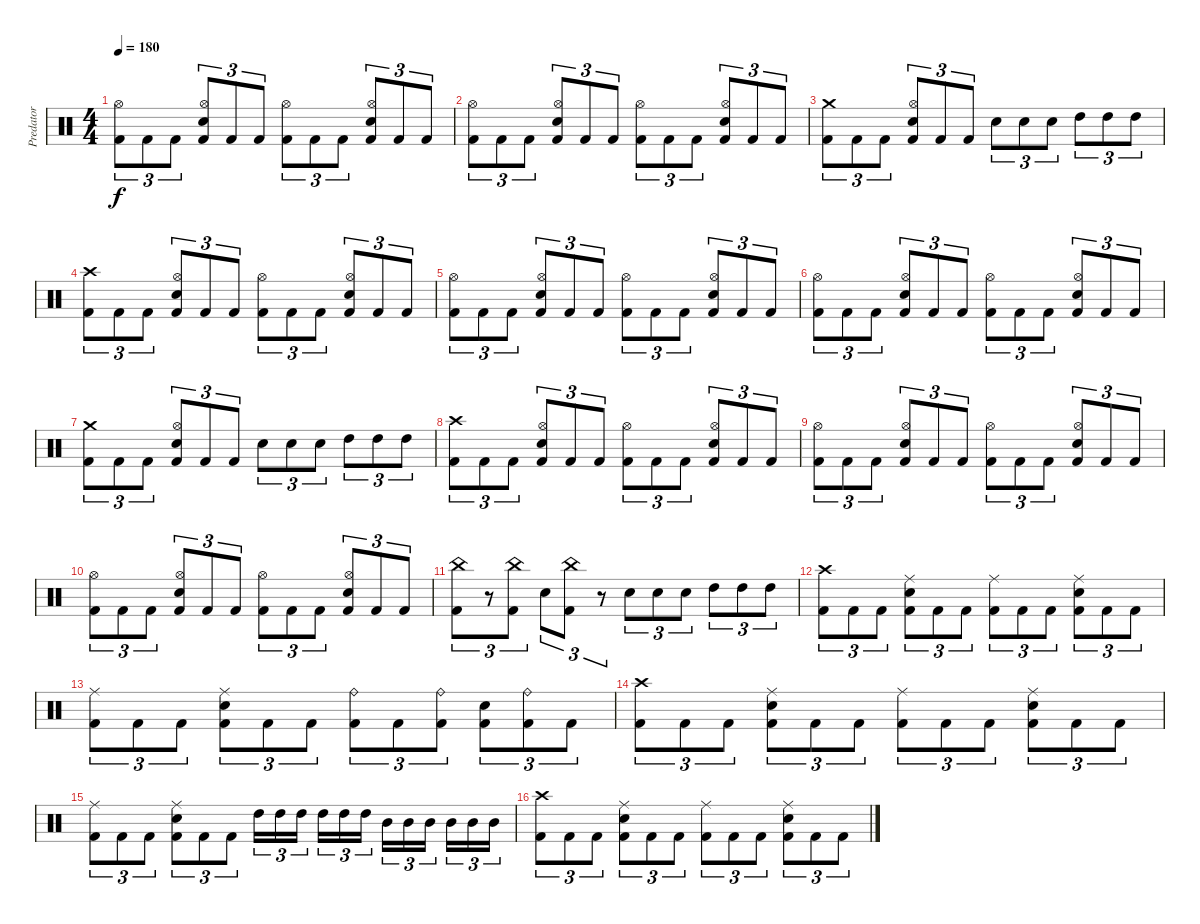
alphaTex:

\track ("Predator" "Predator") {instrument percussion}
\staff {score}
\articulation defaults
\ts (4 4)
\tempo 180
\clef neutral
\ks c
("Kick (hit) 2" "Hi-Hat (open)").8{tu (3 2) dy f} "Kick (hit) 2".8{tu (3 2)} "Kick (hit) 2".8{tu (3 2)} ("Kick (hit) 2" "Electric Snare (hit)" "Hi-Hat (open)").8{tu (3 2)} "Kick (hit) 2".8{tu (3 2)} "Kick (hit) 2".8{tu (3 2)} ("Kick (hit) 2" "Hi-Hat (open)").8{tu (3 2)} "Kick (hit) 2".8{tu (3 2)} "Kick (hit) 2".8{tu (3 2)} ("Kick (hit) 2" "Electric Snare (hit)" "Hi-Hat (open)").8{tu (3 2)} "Kick (hit) 2".8{tu (3 2)} "Kick (hit) 2".8{tu (3 2)} |
("Kick (hit) 2" "Hi-Hat (open)").8{tu (3 2)} "Kick (hit) 2".8{tu (3 2)} "Kick (hit) 2".8{tu (3 2)} ("Kick (hit) 2" "Electric Snare (hit)" "Hi-Hat (open)").8{tu (3 2)} "Kick (hit) 2".8{tu (3 2)} "Kick (hit) 2".8{tu (3 2)} ("Kick (hit) 2" "Hi-Hat (open)").8{tu (3 2)} "Kick (hit) 2".8{tu (3 2)} "Kick (hit) 2".8{tu (3 2)} ("Kick (hit) 2" "Electric Snare (hit)" "Hi-Hat (open)").8{tu (3 2)} "Kick (hit) 2".8{tu (3 2)} "Kick (hit) 2".8{tu (3 2)} |
("Kick (hit) 2" "Crash medium (hit)").8{tu (3 2)} "Kick (hit) 2".8{tu (3 2)} "Kick (hit) 2".8{tu (3 2)} ("Kick (hit) 2" "Electric Snare (hit)" "Hi-Hat (open)").8{tu (3 2)} "Kick (hit) 2".8{tu (3 2)} "Kick (hit) 2".8{tu (3 2)} "Electric Snare (hit)".8{tu (3 2)} "Electric Snare (hit)".8{tu (3 2)} "Electric Snare (hit)".8{tu (3 2)} "High Tom (hit)".8{tu (3 2)} "High Tom (hit)".8{tu (3 2)} "High Tom (hit)".8{tu (3 2)} |
("Kick (hit) 2" "Crash high (hit)").8{tu (3 2)} "Kick (hit) 2".8{tu (3 2)} "Kick (hit) 2".8{tu (3 2)} ("Kick (hit) 2" "Electric Snare (hit)" "Hi-Hat (open)").8{tu (3 2)} "Kick (hit) 2".8{tu (3 2)} "Kick (hit) 2".8{tu (3 2)} ("Kick (hit) 2" "Hi-Hat (open)").8{tu (3 2)} "Kick (hit) 2".8{tu (3 2)} "Kick (hit) 2".8{tu (3 2)} ("Kick (hit) 2" "Electric Snare (hit)" "Hi-Hat (open)").8{tu (3 2)} "Kick (hit) 2".8{tu (3 2)} "Kick (hit) 2".8{tu (3 2)} |
("Kick (hit) 2" "Hi-Hat (open)").8{tu (3 2)} "Kick (hit) 2".8{tu (3 2)} "Kick (hit) 2".8{tu (3 2)} ("Kick (hit) 2" "Electric Snare (hit)" "Hi-Hat (open)").8{tu (3 2)} "Kick (hit) 2".8{tu (3 2)} "Kick (hit) 2".8{tu (3 2)} ("Kick (hit) 2" "Hi-Hat (open)").8{tu (3 2)} "Kick (hit) 2".8{tu (3 2)} "Kick (hit) 2".8{tu (3 2)} ("Kick (hit) 2" "Electric Snare (hit)" "Hi-Hat (open)").8{tu (3 2)} "Kick (hit) 2".8{tu (3 2)} "Kick (hit) 2".8{tu (3 2)} |
("Kick (hit) 2" "Hi-Hat (open)").8{tu (3 2)} "Kick (hit) 2".8{tu (3 2)} "Kick (hit) 2".8{tu (3 2)} ("Kick (hit) 2" "Electric Snare (hit)" "Hi-Hat (open)").8{tu (3 2)} "Kick (hit) 2".8{tu (3 2)} "Kick (hit) 2".8{tu (3 2)} ("Kick (hit) 2" "Hi-Hat (open)").8{tu (3 2)} "Kick (hit) 2".8{tu (3 2)} "Kick (hit) 2".8{tu (3 2)} ("Kick (hit) 2" "Electric Snare (hit)" "Hi-Hat (open)").8{tu (3 2)} "Kick (hit) 2".8{tu (3 2)} "Kick (hit) 2".8{tu (3 2)} |
("Kick (hit) 2" "Crash medium (hit)").8{tu (3 2)} "Kick (hit) 2".8{tu (3 2)} "Kick (hit) 2".8{tu (3 2)} ("Kick (hit) 2" "Electric Snare (hit)" "Hi-Hat (open)").8{tu (3 2)} "Kick (hit) 2".8{tu (3 2)} "Kick (hit) 2".8{tu (3 2)} "Electric Snare (hit)".8{tu (3 2)} "Electric Snare (hit)".8{tu (3 2)} "Electric Snare (hit)".8{tu (3 2)} "High Tom (hit)".8{tu (3 2)} "High Tom (hit)".8{tu (3 2)} "High Tom (hit)".8{tu (3 2)} |
("Kick (hit) 2" "Crash high (hit)").8{tu (3 2)} "Kick (hit) 2".8{tu (3 2)} "Kick (hit) 2".8{tu (3 2)} ("Kick (hit) 2" "Electric Snare (hit)" "Hi-Hat (open)").8{tu (3 2)} "Kick (hit) 2".8{tu (3 2)} "Kick (hit) 2".8{tu (3 2)} ("Kick (hit) 2" "Hi-Hat (open)").8{tu (3 2)} "Kick (hit) 2".8{tu (3 2)} "Kick (hit) 2".8{tu (3 2)} ("Kick (hit) 2" "Electric Snare (hit)" "Hi-Hat (open)").8{tu (3 2)} "Kick (hit) 2".8{tu (3 2)} "Kick (hit) 2".8{tu (3 2)} |
("Kick (hit) 2" "Hi-Hat (open)").8{tu (3 2)} "Kick (hit) 2".8{tu (3 2)} "Kick (hit) 2".8{tu (3 2)} ("Kick (hit) 2" "Electric Snare (hit)" "Hi-Hat (open)").8{tu (3 2)} "Kick (hit) 2".8{tu (3 2)} "Kick (hit) 2".8{tu (3 2)} ("Kick (hit) 2" "Hi-Hat (open)").8{tu (3 2)} "Kick (hit) 2".8{tu (3 2)} "Kick (hit) 2".8{tu (3 2)} ("Kick (hit) 2" "Electric Snare (hit)" "Hi-Hat (open)").8{tu (3 2)} "Kick (hit) 2".8{tu (3 2)} "Kick (hit) 2".8{tu (3 2)} |
("Kick (hit) 2" "Hi-Hat (open)").8{tu (3 2)} "Kick (hit) 2".8{tu (3 2)} "Kick (hit) 2".8{tu (3 2)} ("Kick (hit) 2" "Electric Snare (hit)" "Hi-Hat (open)").8{tu (3 2)} "Kick (hit) 2".8{tu (3 2)} "Kick (hit) 2".8{tu (3 2)} ("Kick (hit) 2" "Hi-Hat (open)").8{tu (3 2)} "Kick (hit) 2".8{tu (3 2)} "Kick (hit) 2".8{tu (3 2)} ("Kick (hit) 2" "Electric Snare (hit)" "Hi-Hat (open)").8{tu (3 2)} "Kick (hit) 2".8{tu (3 2)} "Kick (hit) 2".8{tu (3 2)} |
("Kick (hit) 2" "China (hit)").8{tu (3 2)} r.8{tu (3 2)} ("Kick (hit) 2" "China (hit)").8{tu (3 2)} "Electric Snare (hit)".8{tu (3 2)} ("Kick (hit) 2" "China (hit)").8{tu (3 2)} r.8{tu (3 2)} "Electric Snare (hit)".8{tu (3 2)} "Electric Snare (hit)".8{tu (3 2)} "Electric Snare (hit)".8{tu (3 2)} "High Tom (hit)".8{tu (3 2)} "High Tom (hit)".8{tu (3 2)} "High Tom (hit)".8{tu (3 2)} |
("Kick (hit) 2" "Crash high (hit)").8{tu (3 2)} "Kick (hit) 2".8{tu (3 2)} "Kick (hit) 2".8{tu (3 2)} ("Kick (hit) 2" "Electric Snare (hit)" "Ride (middle)").8{tu (3 2)} "Kick (hit) 2".8{tu (3 2)} "Kick (hit) 2".8{tu (3 2)} ("Kick (hit) 2" "Ride (middle)").8{tu (3 2)} "Kick (hit) 2".8{tu (3 2)} "Kick (hit) 2".8{tu (3 2)} ("Kick (hit) 2" "Electric Snare (hit)" "Ride (middle)").8{tu (3 2)} "Kick (hit) 2".8{tu (3 2)} "Kick (hit) 2".8{tu (3 2)} |
("Kick (hit) 2" "Ride (middle)").8{tu (3 2)} "Kick (hit) 2".8{tu (3 2)} "Kick (hit) 2".8{tu (3 2)} ("Kick (hit) 2" "Electric Snare (hit)" "Ride (middle)").8{tu (3 2)} "Kick (hit) 2".8{tu (3 2)} "Kick (hit) 2".8{tu (3 2)} ("Kick (hit) 2" "Ride (bell)").8{tu (3 2)} "Kick (hit) 2".8{tu (3 2)} ("Kick (hit) 2" "Ride (bell)").8{tu (3 2)} ("Kick (hit) 2" "Electric Snare (hit)").8{tu (3 2)} ("Kick (hit) 2" "Ride (bell)").8{tu (3 2)} "Kick (hit) 2".8{tu (3 2)} |
("Kick (hit) 2" "Crash high (hit)").8{tu (3 2)} "Kick (hit) 2".8{tu (3 2)} "Kick (hit) 2".8{tu (3 2)} ("Kick (hit) 2" "Electric Snare (hit)" "Ride (middle)").8{tu (3 2)} "Kick (hit) 2".8{tu (3 2)} "Kick (hit) 2".8{tu (3 2)} ("Kick (hit) 2" "Ride (middle)").8{tu (3 2)} "Kick (hit) 2".8{tu (3 2)} "Kick (hit) 2".8{tu (3 2)} ("Kick (hit) 2" "Electric Snare (hit)" "Ride (middle)").8{tu (3 2)} "Kick (hit) 2".8{tu (3 2)} "Kick (hit) 2".8{tu (3 2)} |
("Kick (hit) 2" "Ride (middle)").8{tu (3 2)} "Kick (hit) 2".8{tu (3 2)} "Kick (hit) 2".8{tu (3 2)} ("Kick (hit) 2" "Electric Snare (hit)" "Ride (middle)").8{tu (3 2)} "Kick (hit) 2".8{tu (3 2)} "Kick (hit) 2".8{tu (3 2)} "High Tom (hit)".16{tu (3 2)} "High Tom (hit)".16{tu (3 2)} "High Tom (hit)".16{tu (3 2)} "High Tom (hit)".16{tu (3 2)} "High Tom (hit)".16{tu (3 2)} "High Tom (hit)".16{tu (3 2)} "Mid Tom (hit)".16{tu (3 2)} "Mid Tom (hit)".16{tu (3 2)} "Mid Tom (hit)".16{tu (3 2)} "Mid Tom (hit)".16{tu (3 2)} "Mid Tom (hit)".16{tu (3 2)} "Mid Tom (hit)".16{tu (3 2)} |
("Kick (hit) 2" "Crash high (hit)").8{tu (3 2)} "Kick (hit) 2".8{tu (3 2)} "Kick (hit) 2".8{tu (3 2)} ("Kick (hit) 2" "Electric Snare (hit)" "Ride (middle)").8{tu (3 2)} "Kick (hit) 2".8{tu (3 2)} "Kick (hit) 2".8{tu (3 2)} ("Kick (hit) 2" "Ride (middle)").8{tu (3 2)} "Kick (hit) 2".8{tu (3 2)} "Kick (hit) 2".8{tu (3 2)} ("Kick (hit) 2" "Electric Snare (hit)" "Ride (middle)").8{tu (3 2)} "Kick (hit) 2".8{tu (3 2)} "Kick (hit) 2".8{tu (3 2)}
